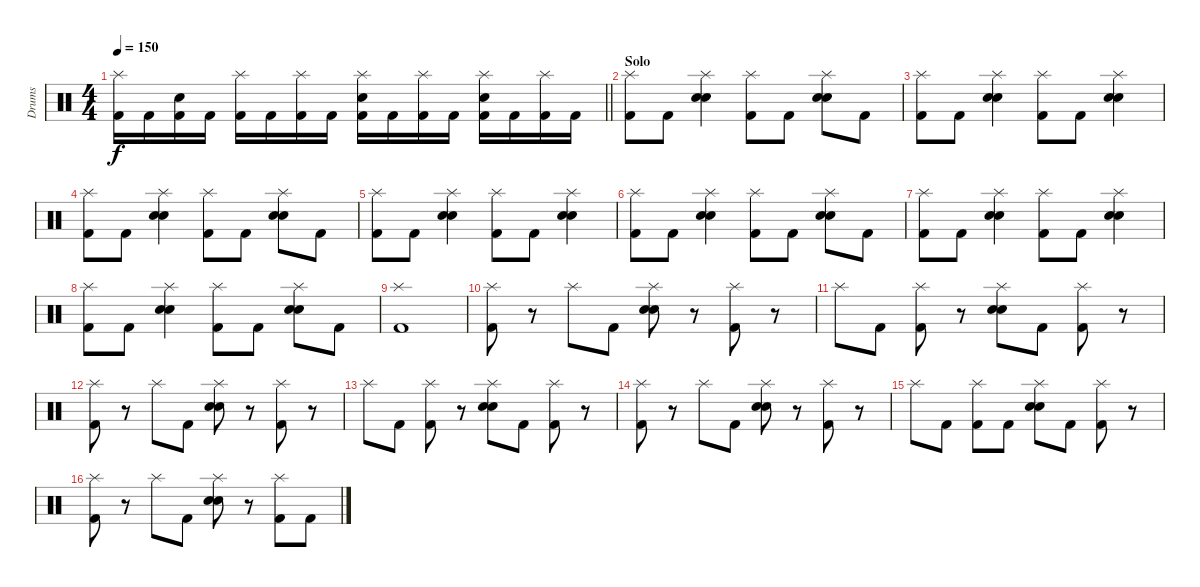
\track ("Drums" "Drums") {instrument percussion}
\staff {score}
\articulation defaults
\ts (4 4)
\tempo 150
\clef neutral
\barLineRight lightlight
\ks c
("Splash (hit)" "Kick (hit) 2").16{dy f} "Kick (hit) 2".16 ("Electric Snare (hit)" "Kick (hit) 2").16 "Kick (hit) 2".16 ("Splash (hit)" "Kick (hit) 2").16 "Kick (hit) 2".16 ("Splash (hit)" "Kick (hit) 2").16 "Kick (hit) 2".16 ("Splash (hit)" "Electric Snare (hit)" "Kick (hit) 2").16 "Kick (hit) 2".16 ("Splash (hit)" "Kick (hit) 2").16 "Kick (hit) 2".16 ("Splash (hit)" "Electric Snare (hit)" "Kick (hit) 2").16 "Kick (hit) 2".16 ("Splash (hit)" "Kick (hit) 2").16 "Kick (hit) 2".16 |
\section ("" "Solo")
("Splash (hit)" "Kick (hit) 2").8 "Kick (hit) 2".8 ("Splash (hit)" "Electric Snare (hit)" "Snare (hit) 2").4 ("Splash (hit)" "Kick (hit) 2").8 "Kick (hit) 2".8 ("Splash (hit)" "Electric Snare (hit)" "Snare (hit) 2").8 "Kick (hit) 2".8 |
("Splash (hit)" "Kick (hit) 2").8 "Kick (hit) 2".8 ("Splash (hit)" "Electric Snare (hit)" "Snare (hit) 2").4 ("Splash (hit)" "Kick (hit) 2").8 "Kick (hit) 2".8 ("Splash (hit)" "Electric Snare (hit)" "Snare (hit) 2").4 |
("Splash (hit)" "Kick (hit) 2").8 "Kick (hit) 2".8 ("Splash (hit)" "Electric Snare (hit)" "Snare (hit) 2").4 ("Splash (hit)" "Kick (hit) 2").8 "Kick (hit) 2".8 ("Splash (hit)" "Electric Snare (hit)" "Snare (hit) 2").8 "Kick (hit) 2".8 |
("Splash (hit)" "Kick (hit) 2").8 "Kick (hit) 2".8 ("Splash (hit)" "Electric Snare (hit)" "Snare (hit) 2").4 ("Splash (hit)" "Kick (hit) 2").8 "Kick (hit) 2".8 ("Splash (hit)" "Electric Snare (hit)" "Snare (hit) 2").4 |
("Splash (hit)" "Kick (hit) 2").8 "Kick (hit) 2".8 ("Splash (hit)" "Electric Snare (hit)" "Snare (hit) 2").4 ("Splash (hit)" "Kick (hit) 2").8 "Kick (hit) 2".8 ("Splash (hit)" "Electric Snare (hit)" "Snare (hit) 2").8 "Kick (hit) 2".8 |
("Splash (hit)" "Kick (hit) 2").8 "Kick (hit) 2".8 ("Splash (hit)" "Electric Snare (hit)" "Snare (hit) 2").4 ("Splash (hit)" "Kick (hit) 2").8 "Kick (hit) 2".8 ("Splash (hit)" "Electric Snare (hit)" "Snare (hit) 2").4 |
("Splash (hit)" "Kick (hit) 2").8 "Kick (hit) 2".8 ("Splash (hit)" "Electric Snare (hit)" "Snare (hit) 2").4 ("Splash (hit)" "Kick (hit) 2").8 "Kick (hit) 2".8 ("Splash (hit)" "Electric Snare (hit)" "Snare (hit) 2").8 "Kick (hit) 2".8 |
("Splash (hit)" "Kick (hit) 2").1 |
("Splash (hit)" "Kick (hit) 2").8 r.8 "Splash (hit)".8 "Kick (hit) 2".8 ("Splash (hit)" "Electric Snare (hit)" "Snare (hit) 2").8 r.8 ("Splash (hit)" "Kick (hit) 2").8 r.8 |
"Splash (hit)".8 "Kick (hit) 2".8 ("Splash (hit)" "Kick (hit) 2").8 r.8 ("Splash (hit)" "Electric Snare (hit)" "Snare (hit) 2").8 "Kick (hit) 2".8 ("Splash (hit)" "Kick (hit) 2").8 r.8 |
("Splash (hit)" "Kick (hit) 2").8 r.8 "Splash (hit)".8 "Kick (hit) 2".8 ("Splash (hit)" "Electric Snare (hit)" "Snare (hit) 2").8 r.8 ("Splash (hit)" "Kick (hit) 2").8 r.8 |
"Splash (hit)".8 "Kick (hit) 2".8 ("Splash (hit)" "Kick (hit) 2").8 r.8 ("Splash (hit)" "Electric Snare (hit)" "Snare (hit) 2").8 "Kick (hit) 2".8 ("Splash (hit)" "Kick (hit) 2").8 r.8 |
("Splash (hit)" "Kick (hit) 2").8 r.8 "Splash (hit)".8 "Kick (hit) 2".8 ("Splash (hit)" "Electric Snare (hit)" "Snare (hit) 2").8 r.8 ("Splash (hit)" "Kick (hit) 2").8 r.8 |
"Splash (hit)".8 "Kick (hit) 2".8 ("Splash (hit)" "Kick (hit) 2").8 "Kick (hit) 2".8 ("Splash (hit)" "Electric Snare (hit)" "Snare (hit) 2").8 "Kick (hit) 2".8 ("Splash (hit)" "Kick (hit) 2").8 r.8 |
("Splash (hit)" "Kick (hit) 2").8 r.8 "Splash (hit)".8 "Kick (hit) 2".8 ("Splash (hit)" "Electric Snare (hit)" "Snare (hit) 2").8 r.8 ("Splash (hit)" "Kick (hit) 2").8 "Kick (hit) 2".8
